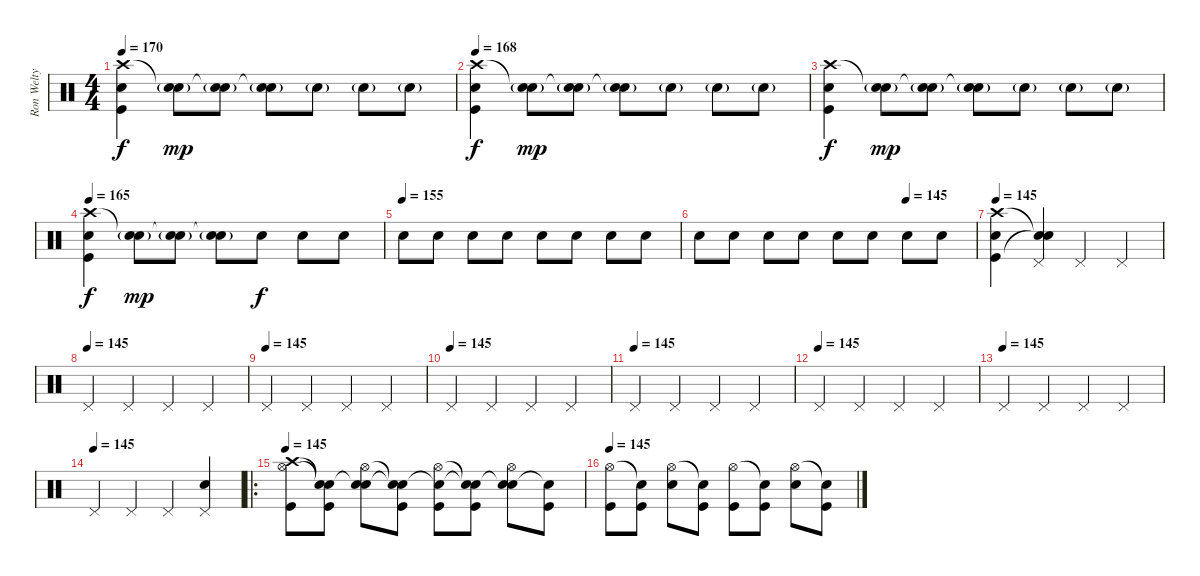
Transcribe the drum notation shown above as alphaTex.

\track ("Ron Welty" "Ron Welty") {instrument percussion}
\staff {score}
\articulation defaults
\ts (4 4)
\tempo 170
\clef neutral
\ks c
("Crash high (hit)" "Snare (hit) 2" "Kick (hit)").4{dy f volume 13} ("Snare (hit)"{t} "Snare (hit) 2"{g}).8{dy mp} ("Snare (hit)"{t} "Snare (hit) 2"{g}).8 ("Snare (hit)"{t} "Snare (hit) 2"{g}).8 "Snare (hit) 2"{g}.8 "Snare (hit) 2"{g}.8 "Snare (hit) 2"{g}.8 |
\tempo 168
("Crash high (hit)" "Snare (hit) 2" "Kick (hit)").4{dy f volume 13} ("Snare (hit)"{t} "Snare (hit) 2"{g}).8{dy mp} ("Snare (hit)"{t} "Snare (hit) 2"{g}).8 ("Snare (hit)"{t} "Snare (hit) 2"{g}).8 "Snare (hit) 2"{g}.8 "Snare (hit) 2"{g}.8 "Snare (hit) 2"{g}.8 |
("Crash high (hit)" "Snare (hit) 2" "Kick (hit)").4{dy f volume 13} ("Snare (hit)"{t} "Snare (hit) 2"{g}).8{dy mp} ("Snare (hit)"{t} "Snare (hit) 2"{g}).8 ("Snare (hit)"{t} "Snare (hit) 2"{g}).8 "Snare (hit) 2"{g}.8 "Snare (hit) 2"{g}.8 "Snare (hit) 2"{g}.8 |
\tempo 165
("Crash high (hit)" "Snare (hit) 2" "Kick (hit)").4{dy f volume 13} ("Snare (hit)"{t} "Snare (hit) 2"{g}).8{dy mp} ("Snare (hit)"{t} "Snare (hit) 2"{g}).8 ("Snare (hit)"{t} "Snare (hit) 2"{g}).8 "Snare (hit) 2".8{dy f} "Snare (hit) 2".8 "Snare (hit) 2".8 |
\tempo (155)
"Snare (hit) 2".8 "Snare (hit) 2".8 "Snare (hit) 2".8 "Snare (hit) 2".8 "Snare (hit) 2".8 "Snare (hit) 2".8 "Snare (hit) 2".8 "Snare (hit) 2".8 |
\tempo (145 0.75)
"Snare (hit) 2".8 "Snare (hit) 2".8 "Snare (hit) 2".8 "Snare (hit) 2".8 "Snare (hit) 2".8 "Snare (hit) 2".8 "Snare (hit) 2".8 "Snare (hit) 2".8 |
\tempo 145
("Crash high (hit)" "Snare (hit) 2" "Kick (hit)").4 ("Snare (hit)"{t} "Pedal Hi-Hat (hit)" "Snare (hit)"{t}).4 "Pedal Hi-Hat (hit)".4 "Pedal Hi-Hat (hit)".4 |
\tempo (145)
"Pedal Hi-Hat (hit)".4 "Pedal Hi-Hat (hit)".4 "Pedal Hi-Hat (hit)".4 "Pedal Hi-Hat (hit)".4 |
\tempo (145)
"Pedal Hi-Hat (hit)".4 "Pedal Hi-Hat (hit)".4 "Pedal Hi-Hat (hit)".4 "Pedal Hi-Hat (hit)".4 |
\tempo (145)
"Pedal Hi-Hat (hit)".4 "Pedal Hi-Hat (hit)".4 "Pedal Hi-Hat (hit)".4 "Pedal Hi-Hat (hit)".4 |
\tempo (145)
"Pedal Hi-Hat (hit)".4 "Pedal Hi-Hat (hit)".4 "Pedal Hi-Hat (hit)".4 "Pedal Hi-Hat (hit)".4 |
\tempo (145)
"Pedal Hi-Hat (hit)".4 "Pedal Hi-Hat (hit)".4 "Pedal Hi-Hat (hit)".4 "Pedal Hi-Hat (hit)".4 |
\tempo (145)
"Pedal Hi-Hat (hit)".4 "Pedal Hi-Hat (hit)".4 "Pedal Hi-Hat (hit)".4 "Pedal Hi-Hat (hit)".4 |
\tempo (145)
"Pedal Hi-Hat (hit)".4 "Pedal Hi-Hat (hit)".4 "Pedal Hi-Hat (hit)".4 ("Pedal Hi-Hat (hit)" "Snare (hit) 2").4 |
\ro
\tempo 145
("Crash high (hit)" "Hi-Hat (open)" "Kick (hit)").8 ("Snare (hit)"{t} "Snare (hit)"{t} "Kick (hit)").8 ("Snare (hit)"{t} "Hi-Hat (open)" "Snare (hit) 2").8 ("Snare (hit)"{t} "Snare (hit)"{t} "Kick (hit)").8 ("Snare (hit)"{t} "Hi-Hat (open)" "Kick (hit)").8 ("Snare (hit)"{t} "Snare (hit)"{t} "Kick (hit)").8 ("Snare (hit)"{t} "Hi-Hat (open)" "Snare (hit) 2").8 ("Snare (hit)"{t} "Kick (hit)").8 |
\tempo 145
("Hi-Hat (open)" "Kick (hit)").8 ("Snare (hit)"{t} "Kick (hit)").8 ("Hi-Hat (open)" "Snare (hit) 2").8 ("Snare (hit)"{t} "Kick (hit)").8 ("Hi-Hat (open)" "Kick (hit)").8 ("Snare (hit)"{t} "Kick (hit)").8 ("Hi-Hat (open)" "Snare (hit) 2").8 ("Snare (hit)"{t} "Kick (hit)").8
